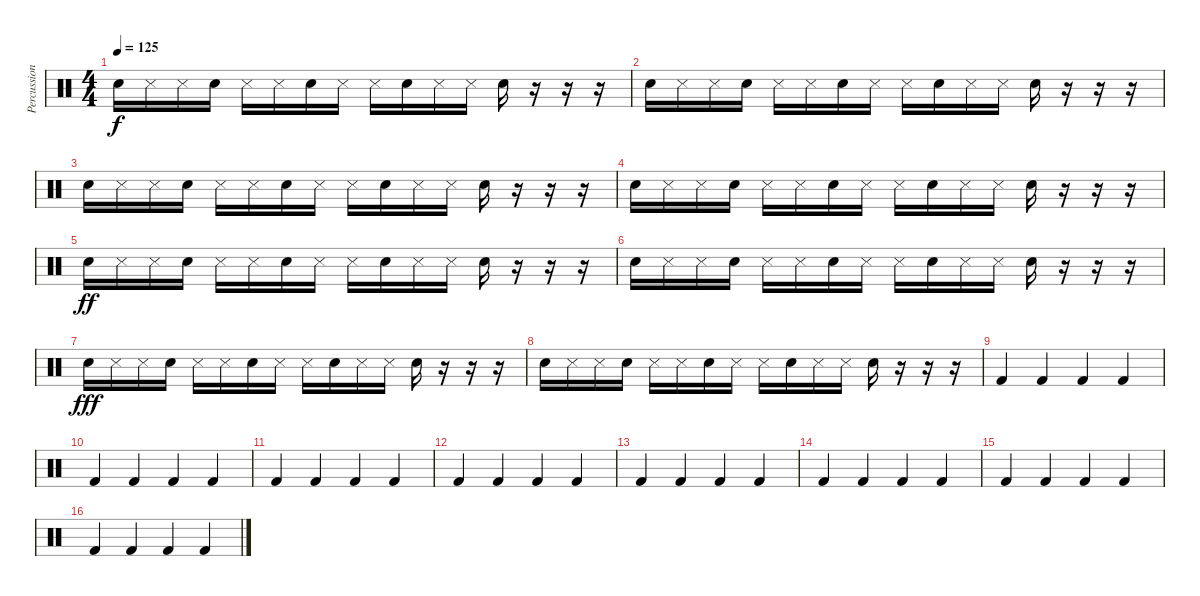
\track ("Percussion" "Percussion") {instrument percussion}
\staff {score}
\articulation defaults
\ts (4 4)
\tempo 125
\clef neutral
\ks c "Snare (hit) 2".16{dy f} "Snare (side stick) 3".16 "Snare (side stick) 3".16 "Snare (hit) 2".16 "Snare (side stick) 3".16 "Snare (side stick) 3".16 "Snare (hit) 2".16 "Snare (side stick) 3".16 "Snare (side stick) 3".16 "Snare (hit) 2".16 "Snare (side stick) 3".16 "Snare (side stick) 3".16 "Snare (hit) 2".16
r.16 r.16 r.16 |
"Snare (hit) 2".16 "Snare (side stick) 3".16 "Snare (side stick) 3".16 "Snare (hit) 2".16 "Snare (side stick) 3".16 "Snare (side stick) 3".16 "Snare (hit) 2".16 "Snare (side stick) 3".16 "Snare (side stick) 3".16 "Snare (hit) 2".16 "Snare (side stick) 3".16 "Snare (side stick) 3".16 "Snare (hit) 2".16 r.16 r.16 r.16 |
"Snare (hit) 2".16 "Snare (side stick) 3".16 "Snare (side stick) 3".16 "Snare (hit) 2".16 "Snare (side stick) 3".16 "Snare (side stick) 3".16 "Snare (hit) 2".16 "Snare (side stick) 3".16 "Snare (side stick) 3".16 "Snare (hit) 2".16 "Snare (side stick) 3".16 "Snare (side stick) 3".16 "Snare (hit) 2".16 r.16 r.16 r.16 |
"Snare (hit) 2".16 "Snare (side stick) 3".16 "Snare (side stick) 3".16 "Snare (hit) 2".16 "Snare (side stick) 3".16 "Snare (side stick) 3".16 "Snare (hit) 2".16 "Snare (side stick) 3".16 "Snare (side stick) 3".16 "Snare (hit) 2".16 "Snare (side stick) 3".16 "Snare (side stick) 3".16 "Snare (hit) 2".16 r.16 r.16 r.16 |
"Snare (hit) 2".16{dy ff} "Snare (side stick) 3".16 "Snare (side stick) 3".16 "Snare (hit) 2".16 "Snare (side stick) 3".16 "Snare (side stick) 3".16 "Snare (hit) 2".16 "Snare (side stick) 3".16 "Snare (side stick) 3".16 "Snare (hit) 2".16 "Snare (side stick) 3".16 "Snare (side stick) 3".16 "Snare (hit) 2".16 r.16 r.16 r.16 |
"Snare (hit) 2".16 "Snare (side stick) 3".16 "Snare (side stick) 3".16 "Snare (hit) 2".16 "Snare (side stick) 3".16 "Snare (side stick) 3".16 "Snare (hit) 2".16 "Snare (side stick) 3".16 "Snare (side stick) 3".16 "Snare (hit) 2".16 "Snare (side stick) 3".16 "Snare (side stick) 3".16 "Snare (hit) 2".16 r.16 r.16 r.16 |
"Snare (hit) 2".16{dy fff} "Snare (side stick) 3".16 "Snare (side stick) 3".16 "Snare (hit) 2".16 "Snare (side stick) 3".16 "Snare (side stick) 3".16 "Snare (hit) 2".16 "Snare (side stick) 3".16 "Snare (side stick) 3".16 "Snare (hit) 2".16 "Snare (side stick) 3".16 "Snare (side stick) 3".16 "Snare (hit) 2".16 r.16 r.16 r.16 |
"Snare (hit) 2".16 "Snare (side stick) 3".16 "Snare (side stick) 3".16 "Snare (hit) 2".16 "Snare (side stick) 3".16 "Snare (side stick) 3".16 "Snare (hit) 2".16 "Snare (side stick) 3".16 "Snare (side stick) 3".16 "Snare (hit) 2".16 "Snare (side stick) 3".16 "Snare (side stick) 3".16 "Snare (hit) 2".16 r.16 r.16 r.16 |
"Kick (hit) 2".4 "Kick (hit) 2".4 "Kick (hit) 2".4 "Kick (hit) 2".4 |
"Kick (hit) 2".4 "Kick (hit) 2".4 "Kick (hit) 2".4 "Kick (hit) 2".4 |
"Kick (hit) 2".4 "Kick (hit) 2".4 "Kick (hit) 2".4 "Kick (hit) 2".4 |
"Kick (hit) 2".4 "Kick (hit) 2".4 "Kick (hit) 2".4 "Kick (hit) 2".4 |
"Kick (hit) 2".4 "Kick (hit) 2".4 "Kick (hit) 2".4 "Kick (hit) 2".4 |
"Kick (hit) 2".4 "Kick (hit) 2".4 "Kick (hit) 2".4 "Kick (hit) 2".4 |
"Kick (hit) 2".4 "Kick (hit) 2".4 "Kick (hit) 2".4 "Kick (hit) 2".4 |
"Kick (hit) 2".4 "Kick (hit) 2".4 "Kick (hit) 2".4 "Kick (hit) 2".4
